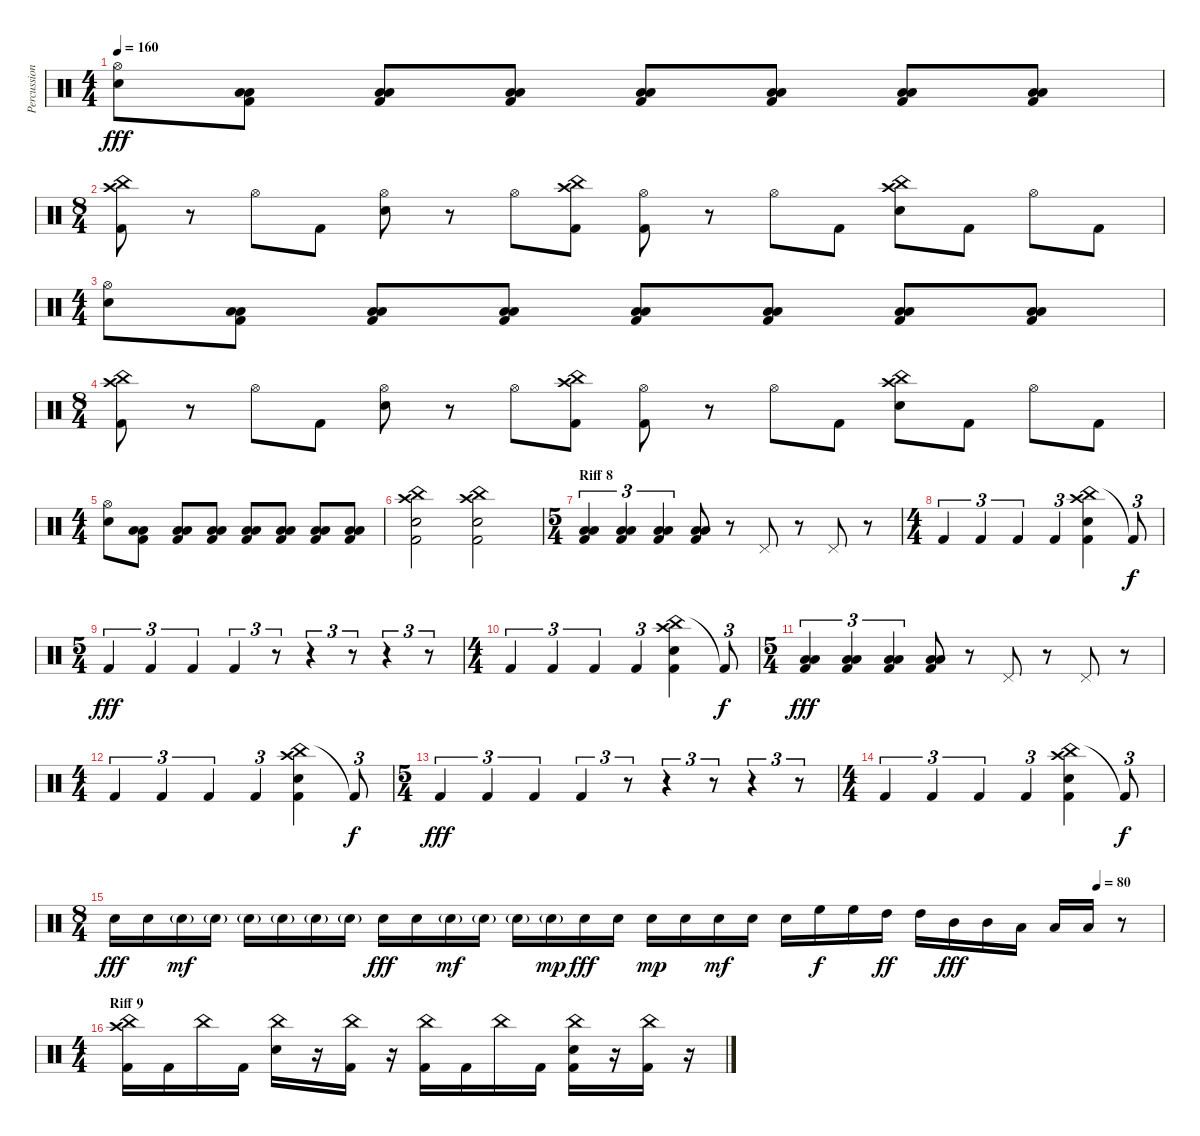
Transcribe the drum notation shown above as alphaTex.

\track ("Percussion" "Percussion") {instrument percussion}
\staff {score}
\articulation defaults
\ts (4 4)
\tempo 160
\clef neutral
\ks c
("Hi-Hat (open)" "Electric Snare (hit)").8{dy fff} ("Low Floor Tom (hit)" "Low Floor Tom (hit)" "Kick (hit) 2").8 ("Low Floor Tom (hit)" "Low Floor Tom (hit)" "Kick (hit) 2").8 ("Low Floor Tom (hit)" "Low Floor Tom (hit)" "Kick (hit) 2").8 ("Low Floor Tom (hit)" "Low Floor Tom (hit)" "Kick (hit) 2").8 ("Low Floor Tom (hit)" "Low Floor Tom (hit)" "Kick (hit) 2").8 ("Low Floor Tom (hit)" "Low Floor Tom (hit)" "Kick (hit) 2").8 ("Low Floor Tom (hit)" "Low Floor Tom (hit)" "Kick (hit) 2").8 |
\ts (8 4)
("China (hit)" "Crash high (hit)" "Kick (hit) 2").8 r.8 "Hi-Hat (open)".8 "Kick (hit) 2".8 ("Hi-Hat (open)" "Electric Snare (hit)").8 r.8 "Hi-Hat (open)".8 ("China (hit)" "Crash high (hit)" "Kick (hit) 2").8 ("Hi-Hat (open)" "Kick (hit) 2").8 r.8 "Hi-Hat (open)".8 "Kick (hit) 2".8 ("China (hit)" "Crash high (hit)" "Electric Snare (hit)").8 "Kick (hit) 2".8 "Hi-Hat (open)".8 "Kick (hit) 2".8 |
\ts (4 4)
("Hi-Hat (open)" "Electric Snare (hit)").8 ("Low Floor Tom (hit)" "Low Floor Tom (hit)" "Kick (hit) 2").8 ("Low Floor Tom (hit)" "Low Floor Tom (hit)" "Kick (hit) 2").8 ("Low Floor Tom (hit)" "Low Floor Tom (hit)" "Kick (hit) 2").8 ("Low Floor Tom (hit)" "Low Floor Tom (hit)" "Kick (hit) 2").8 ("Low Floor Tom (hit)" "Low Floor Tom (hit)" "Kick (hit) 2").8 ("Low Floor Tom (hit)" "Low Floor Tom (hit)" "Kick (hit) 2").8 ("Low Floor Tom (hit)" "Low Floor Tom (hit)" "Kick (hit) 2").8 |
\ts (8 4)
("China (hit)" "Crash high (hit)" "Kick (hit) 2").8 r.8 "Hi-Hat (open)".8 "Kick (hit) 2".8 ("Hi-Hat (open)" "Electric Snare (hit)").8 r.8 "Hi-Hat (open)".8 ("China (hit)" "Crash high (hit)" "Kick (hit) 2").8 ("Hi-Hat (open)" "Kick (hit) 2").8 r.8 "Hi-Hat (open)".8 "Kick (hit) 2".8 ("China (hit)" "Crash high (hit)" "Electric Snare (hit)").8 "Kick (hit) 2".8 "Hi-Hat (open)".8 "Kick (hit) 2".8 |
\ts (4 4)
("Hi-Hat (open)" "Electric Snare (hit)").8 ("Low Floor Tom (hit)" "Low Floor Tom (hit)" "Kick (hit) 2").8 ("Low Floor Tom (hit)" "Low Floor Tom (hit)" "Kick (hit) 2").8 ("Low Floor Tom (hit)" "Low Floor Tom (hit)" "Kick (hit) 2").8 ("Low Floor Tom (hit)" "Low Floor Tom (hit)" "Kick (hit) 2").8 ("Low Floor Tom (hit)" "Low Floor Tom (hit)" "Kick (hit) 2").8 ("Low Floor Tom (hit)" "Low Floor Tom (hit)" "Kick (hit) 2").8 ("Low Floor Tom (hit)" "Low Floor Tom (hit)" "Kick (hit) 2").8 |
("China (hit)" "Crash high (hit)" "Electric Snare (hit)" "Kick (hit) 2").2 ("China (hit)" "Crash high (hit)" "Electric Snare (hit)" "Kick (hit) 2").2 |
\ts (5 4)
\section ("" "Riff 8")
("Low Floor Tom (hit)" "Low Floor Tom (hit)" "Kick (hit) 2").4{tu (3 2)} ("Low Floor Tom (hit)" "Low Floor Tom (hit)" "Kick (hit) 2").4{tu (3 2)} ("Low Floor Tom (hit)" "Low Floor Tom (hit)" "Kick (hit) 2").4{tu (3 2)} ("Low Floor Tom (hit)" "Low Floor Tom (hit)" "Kick (hit) 2").8 r.8 "Pedal Hi-Hat (hit)".8 r.8 "Pedal Hi-Hat (hit)".8 r.8 |
\ts (4 4)
"Kick (hit) 2".4{tu (3 2)} "Kick (hit) 2".4{tu (3 2)} "Kick (hit) 2".4{tu (3 2)} "Kick (hit) 2".4{tu (3 2)} ("China (hit)" "Crash high (hit)" "Electric Snare (hit)" "Kick (hit) 2").4 "Kick (hit) 2"{t}.8{tu (3 2) dy f} |
\ts (5 4)
"Kick (hit) 2".4{tu (3 2) dy fff} "Kick (hit) 2".4{tu (3 2)} "Kick (hit) 2".4{tu (3 2)} "Kick (hit) 2".4{tu (3 2)} r.8{tu (3 2)} r.4{tu (3 2)} r.8{tu (3 2)} r.4{tu (3 2)} r.8{tu (3 2)} |
\ts (4 4)
"Kick (hit) 2".4{tu (3 2)} "Kick (hit) 2".4{tu (3 2)} "Kick (hit) 2".4{tu (3 2)} "Kick (hit) 2".4{tu (3 2)} ("China (hit)" "Crash high (hit)" "Electric Snare (hit)" "Kick (hit) 2").4 "Kick (hit) 2"{t}.8{tu (3 2) dy f} |
\ts (5 4)
("Low Floor Tom (hit)" "Low Floor Tom (hit)" "Kick (hit) 2").4{tu (3 2) dy fff} ("Low Floor Tom (hit)" "Low Floor Tom (hit)" "Kick (hit) 2").4{tu (3 2)} ("Low Floor Tom (hit)" "Low Floor Tom (hit)" "Kick (hit) 2").4{tu (3 2)} ("Low Floor Tom (hit)" "Low Floor Tom (hit)" "Kick (hit) 2").8 r.8 "Pedal Hi-Hat (hit)".8 r.8 "Pedal Hi-Hat (hit)".8 r.8 |
\ts (4 4)
"Kick (hit) 2".4{tu (3 2)} "Kick (hit) 2".4{tu (3 2)} "Kick (hit) 2".4{tu (3 2)} "Kick (hit) 2".4{tu (3 2)} ("China (hit)" "Crash high (hit)" "Electric Snare (hit)" "Kick (hit) 2").4 "Kick (hit) 2"{t}.8{tu (3 2) dy f} |
\ts (5 4)
"Kick (hit) 2".4{tu (3 2) dy fff} "Kick (hit) 2".4{tu (3 2)} "Kick (hit) 2".4{tu (3 2)} "Kick (hit) 2".4{tu (3 2)} r.8{tu (3 2)} r.4{tu (3 2)} r.8{tu (3 2)} r.4{tu (3 2)} r.8{tu (3 2)} |
\ts (4 4)
"Kick (hit) 2".4{tu (3 2)} "Kick (hit) 2".4{tu (3 2)} "Kick (hit) 2".4{tu (3 2)} "Kick (hit) 2".4{tu (3 2)} ("China (hit)" "Crash high (hit)" "Electric Snare (hit)" "Kick (hit) 2").4 "Kick (hit) 2"{t}.8{tu (3 2) dy f} |
\ts (8 4)
\tempo (80 0.9375)
"Electric Snare (hit)".16{dy fff} "Electric Snare (hit)".16 "Electric Snare (hit)"{g}.16{dy mf} "Electric Snare (hit)"{g}.16 "Electric Snare (hit)"{g}.16 "Electric Snare (hit)"{g}.16 "Electric Snare (hit)"{g}.16 "Electric Snare (hit)"{g}.16 "Electric Snare (hit)".16{dy fff} "Electric Snare (hit)".16 "Electric Snare (hit)"{g}.16{dy mf} "Electric Snare (hit)"{g}.16 "Electric Snare (hit)"{g}.16 "Electric Snare (hit)"{g}.16{dy mp} "Electric Snare (hit)".16{dy fff} "Electric Snare (hit)".16 "Electric Snare (hit)".16{dy mp} "Electric Snare (hit)".16 "Electric Snare (hit)".16{dy mf} "Electric Snare (hit)".16 "Electric Snare (hit)".16 "High Floor Tom (hit)".16{dy f} "High Floor Tom (hit)".16 "High Tom (hit)".16{dy ff} "High Tom (hit)".16 "Mid Tom (hit)".16{dy fff} "Mid Tom (hit)".16 "Low Tom (hit)".16 "Low Tom (hit)".16 "Low Floor Tom (hit)".16 r.8 |
\ts (4 4)
\section ("" "Riff 9")
("China (hit)" "Crash high (hit)" "Kick (hit) 2").16 "Kick (hit) 2".16 "China (hit)".16 "Kick (hit) 2".16 ("China (hit)" "Electric Snare (hit)").16 r.16 ("China (hit)" "Kick (hit) 2").16 r.16 ("China (hit)" "Kick (hit) 2").16 "Kick (hit) 2".16 "China (hit)".16 "Kick (hit) 2".16 ("China (hit)" "Electric Snare (hit)" "Kick (hit) 2").16 r.16 ("China (hit)" "Kick (hit) 2").16 r.16
